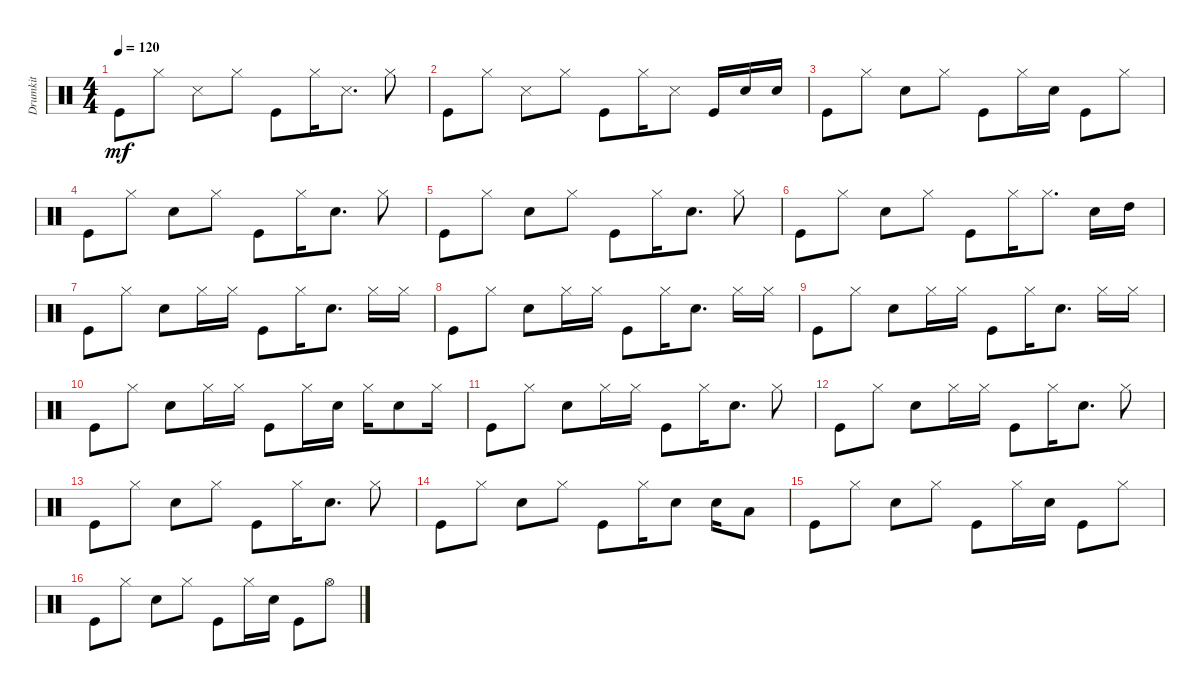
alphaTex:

\track ("Drumkit" "Drumkit") {instrument percussion}
\staff {score}
\articulation defaults
\ts (4 4)
\tempo 120
\clef neutral
\ks c "Kick (hit)".8{dy mf} "Hi-Hat (closed)".8 "Snare (side stick) 3".8 "Hi-Hat (closed)".8 "Kick (hit)".8 "Hi-Hat (closed)".16 "Snare (side stick) 3".8{d} "Hi-Hat (closed)".8
|
"Kick (hit)".8 "Hi-Hat (closed)".8 "Snare (side stick) 3".8 "Hi-Hat (closed)".8 "Kick (hit)".8 "Hi-Hat (closed)".16 "Snare (side stick) 3".8 "Kick (hit)".16 "Snare (hit) 2".16 "Snare (hit) 2".16 |
"Kick (hit)".8 "Hi-Hat (closed)".8 "Snare (hit) 2".8 "Hi-Hat (closed)".8 "Kick (hit)".8 "Hi-Hat (closed)".16 "Snare (hit) 2".16 "Kick (hit)".8 "Hi-Hat (closed)".8 |
"Kick (hit)".8 "Hi-Hat (closed)".8 "Snare (hit) 2".8 "Hi-Hat (closed)".8 "Kick (hit)".8 "Hi-Hat (closed)".16 "Snare (hit) 2".8{d} "Hi-Hat (closed)".8 |
"Kick (hit)".8 "Hi-Hat (closed)".8 "Snare (hit) 2".8 "Hi-Hat (closed)".8 "Kick (hit)".8 "Hi-Hat (closed)".16 "Snare (hit) 2".8{d} "Hi-Hat (closed)".8 |
"Kick (hit)".8 "Hi-Hat (closed)".8 "Snare (hit) 2".8 "Hi-Hat (closed)".8 "Kick (hit)".8 "Hi-Hat (closed)".16 "Hi-Hat (closed)".8{d} "Snare (hit) 2".16 "High Tom (hit)".16 |
"Kick (hit)".8 "Hi-Hat (closed)".8 "Snare (hit) 2".8 "Hi-Hat (closed)".16 "Hi-Hat (closed)".16 "Kick (hit)".8 "Hi-Hat (closed)".16 "Snare (hit) 2".8{d} "Hi-Hat (closed)".16 "Hi-Hat (closed)".16 |
"Kick (hit)".8 "Hi-Hat (closed)".8 "Snare (hit) 2".8 "Hi-Hat (closed)".16 "Hi-Hat (closed)".16 "Kick (hit)".8 "Hi-Hat (closed)".16 "Snare (hit) 2".8{d} "Hi-Hat (closed)".16 "Hi-Hat (closed)".16 |
"Kick (hit)".8 "Hi-Hat (closed)".8 "Snare (hit) 2".8 "Hi-Hat (closed)".16 "Hi-Hat (closed)".16 "Kick (hit)".8 "Hi-Hat (closed)".16 "Snare (hit) 2".8{d} "Hi-Hat (closed)".16 "Hi-Hat (closed)".16 |
"Kick (hit)".8 "Hi-Hat (closed)".8 "Snare (hit) 2".8 "Hi-Hat (closed)".16 "Hi-Hat (closed)".16 "Kick (hit)".8 "Hi-Hat (closed)".16 "Snare (hit) 2".16 "Hi-Hat (closed)".16 "Snare (hit) 2".8 "Hi-Hat (closed)".16 |
"Kick (hit)".8 "Hi-Hat (closed)".8 "Snare (hit) 2".8 "Hi-Hat (closed)".16 "Hi-Hat (closed)".16 "Kick (hit)".8 "Hi-Hat (closed)".16 "Snare (hit) 2".8{d} "Hi-Hat (closed)".8 |
"Kick (hit)".8 "Hi-Hat (closed)".8 "Snare (hit) 2".8 "Hi-Hat (closed)".16 "Hi-Hat (closed)".16 "Kick (hit)".8 "Hi-Hat (closed)".16 "Snare (hit) 2".8{d} "Hi-Hat (closed)".8 |
"Kick (hit)".8 "Hi-Hat (closed)".8 "Snare (hit) 2".8 "Hi-Hat (closed)".8 "Kick (hit)".8 "Hi-Hat (closed)".16 "Snare (hit) 2".8{d} "Hi-Hat (closed)".8 |
"Kick (hit)".8 "Hi-Hat (closed)".8 "Snare (hit) 2".8 "Hi-Hat (closed)".8 "Kick (hit)".8 "Hi-Hat (closed)".16 "Snare (hit) 2".8 "Snare (hit) 2".16 "Low Tom (hit)".8 |
"Kick (hit)".8 "Hi-Hat (closed)".8 "Snare (hit) 2".8 "Hi-Hat (closed)".8 "Kick (hit)".8 "Hi-Hat (closed)".16 "Snare (hit) 2".16 "Kick (hit)".8 "Hi-Hat (closed)".8 |
"Kick (hit)".8 "Hi-Hat (closed)".8 "Snare (hit) 2".8 "Hi-Hat (closed)".8 "Kick (hit)".8 "Hi-Hat (closed)".16 "Snare (hit) 2".16 "Kick (hit)".8 "Hi-Hat (open)".8
